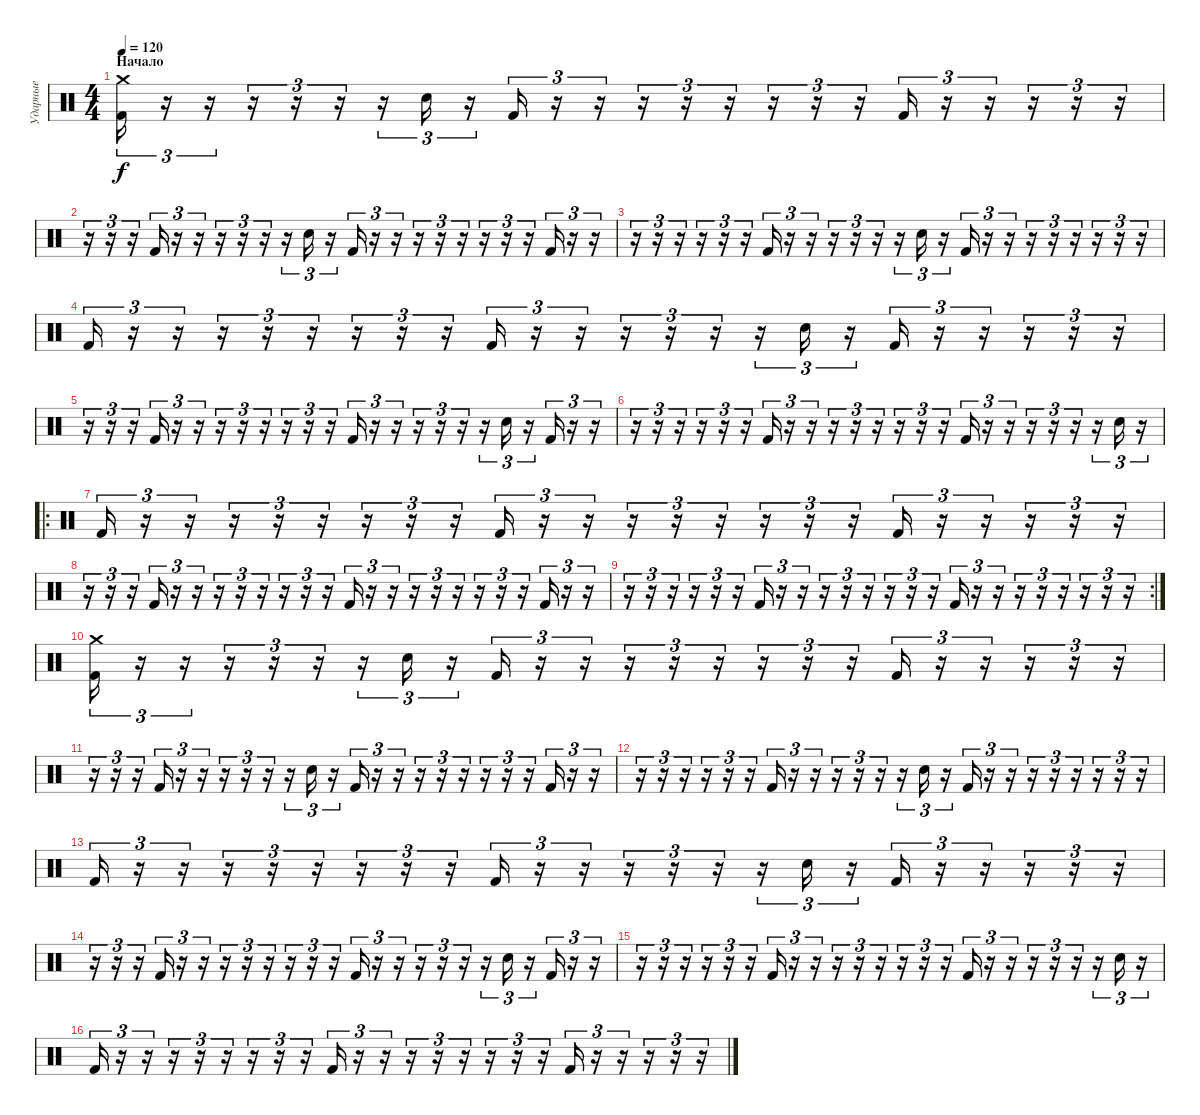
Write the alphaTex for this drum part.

\track ("Ударные" "Ударные") {instrument percussion}
\staff {score}
\articulation defaults
\ts (4 4)
\section ("" "Начало")
\tempo 120
\clef neutral
\ks c
("Crash medium (hit)" "Kick (hit) 2").16{tu (3 2) dy f} r.16{tu (3 2)} r.16{tu (3 2)} r.16{tu (3 2)} r.16{tu (3 2)} r.16{tu (3 2)} r.16{tu (3 2)} "Snare (hit) 2".16{tu (3 2)} r.16{tu (3 2)} "Kick (hit) 2".16{tu (3 2)} r.16{tu (3 2)} r.16{tu (3 2)} r.16{tu (3 2)} r.16{tu (3 2)} r.16{tu (3 2)} r.16{tu (3 2)} r.16{tu (3 2)} r.16{tu (3 2)} "Kick (hit) 2".16{tu (3 2)} r.16{tu (3 2)} r.16{tu (3 2)} r.16{tu (3 2)} r.16{tu (3 2)} r.16{tu (3 2)} |
r.16{tu (3 2)} r.16{tu (3 2)} r.16{tu (3 2)} "Kick (hit) 2".16{tu (3 2)} r.16{tu (3 2)} r.16{tu (3 2)} r.16{tu (3 2)} r.16{tu (3 2)} r.16{tu (3 2)} r.16{tu (3 2)} "Snare (hit) 2".16{tu (3 2)} r.16{tu (3 2)} "Kick (hit) 2".16{tu (3 2)} r.16{tu (3 2)} r.16{tu (3 2)} r.16{tu (3 2)} r.16{tu (3 2)} r.16{tu (3 2)} r.16{tu (3 2)} r.16{tu (3 2)} r.16{tu (3 2)} "Kick (hit) 2".16{tu (3 2)} r.16{tu (3 2)} r.16{tu (3 2)} |
r.16{tu (3 2)} r.16{tu (3 2)} r.16{tu (3 2)} r.16{tu (3 2)} r.16{tu (3 2)} r.16{tu (3 2)} "Kick (hit) 2".16{tu (3 2)} r.16{tu (3 2)} r.16{tu (3 2)} r.16{tu (3 2)} r.16{tu (3 2)} r.16{tu (3 2)} r.16{tu (3 2)} "Snare (hit) 2".16{tu (3 2)} r.16{tu (3 2)} "Kick (hit) 2".16{tu (3 2)} r.16{tu (3 2)} r.16{tu (3 2)} r.16{tu (3 2)} r.16{tu (3 2)} r.16{tu (3 2)} r.16{tu (3 2)} r.16{tu (3 2)} r.16{tu (3 2)} |
"Kick (hit) 2".16{tu (3 2)} r.16{tu (3 2)} r.16{tu (3 2)} r.16{tu (3 2)} r.16{tu (3 2)} r.16{tu (3 2)} r.16{tu (3 2)} r.16{tu (3 2)} r.16{tu (3 2)} "Kick (hit) 2".16{tu (3 2)} r.16{tu (3 2)} r.16{tu (3 2)} r.16{tu (3 2)} r.16{tu (3 2)} r.16{tu (3 2)} r.16{tu (3 2)} "Snare (hit) 2".16{tu (3 2)} r.16{tu (3 2)} "Kick (hit) 2".16{tu (3 2)} r.16{tu (3 2)} r.16{tu (3 2)} r.16{tu (3 2)} r.16{tu (3 2)} r.16{tu (3 2)} |
r.16{tu (3 2)} r.16{tu (3 2)} r.16{tu (3 2)} "Kick (hit) 2".16{tu (3 2)} r.16{tu (3 2)} r.16{tu (3 2)} r.16{tu (3 2)} r.16{tu (3 2)} r.16{tu (3 2)} r.16{tu (3 2)} r.16{tu (3 2)} r.16{tu (3 2)} "Kick (hit) 2".16{tu (3 2)} r.16{tu (3 2)} r.16{tu (3 2)} r.16{tu (3 2)} r.16{tu (3 2)} r.16{tu (3 2)} r.16{tu (3 2)} "Snare (hit) 2".16{tu (3 2)} r.16{tu (3 2)} "Kick (hit) 2".16{tu (3 2)} r.16{tu (3 2)} r.16{tu (3 2)} |
r.16{tu (3 2)} r.16{tu (3 2)} r.16{tu (3 2)} r.16{tu (3 2)} r.16{tu (3 2)} r.16{tu (3 2)} "Kick (hit) 2".16{tu (3 2)} r.16{tu (3 2)} r.16{tu (3 2)} r.16{tu (3 2)} r.16{tu (3 2)} r.16{tu (3 2)} r.16{tu (3 2)} r.16{tu (3 2)} r.16{tu (3 2)} "Kick (hit) 2".16{tu (3 2)} r.16{tu (3 2)} r.16{tu (3 2)} r.16{tu (3 2)} r.16{tu (3 2)} r.16{tu (3 2)} r.16{tu (3 2)} "Snare (hit) 2".16{tu (3 2)} r.16{tu (3 2)} |
\ro "Kick (hit) 2".16{tu (3 2)}
r.16{tu (3 2)} r.16{tu (3 2)} r.16{tu (3 2)} r.16{tu (3 2)} r.16{tu (3 2)} r.16{tu (3 2)} r.16{tu (3 2)} r.16{tu (3 2)} "Kick (hit) 2".16{tu (3 2)} r.16{tu (3 2)} r.16{tu (3 2)} r.16{tu (3 2)} r.16{tu (3 2)} r.16{tu (3 2)} r.16{tu (3 2)} r.16{tu (3 2)} r.16{tu (3 2)} "Kick (hit) 2".16{tu (3 2)} r.16{tu (3 2)} r.16{tu (3 2)} r.16{tu (3 2)} r.16{tu (3 2)} r.16{tu (3 2)} |
r.16{tu (3 2)} r.16{tu (3 2)} r.16{tu (3 2)} "Kick (hit) 2".16{tu (3 2)} r.16{tu (3 2)} r.16{tu (3 2)} r.16{tu (3 2)} r.16{tu (3 2)} r.16{tu (3 2)} r.16{tu (3 2)} r.16{tu (3 2)} r.16{tu (3 2)} "Kick (hit) 2".16{tu (3 2)} r.16{tu (3 2)} r.16{tu (3 2)} r.16{tu (3 2)} r.16{tu (3 2)} r.16{tu (3 2)} r.16{tu (3 2)} r.16{tu (3 2)} r.16{tu (3 2)} "Kick (hit) 2".16{tu (3 2)} r.16{tu (3 2)} r.16{tu (3 2)} |
\rc 2
r.16{tu (3 2)} r.16{tu (3 2)} r.16{tu (3 2)} r.16{tu (3 2)} r.16{tu (3 2)} r.16{tu (3 2)} "Kick (hit) 2".16{tu (3 2)} r.16{tu (3 2)} r.16{tu (3 2)} r.16{tu (3 2)} r.16{tu (3 2)} r.16{tu (3 2)} r.16{tu (3 2)} r.16{tu (3 2)} r.16{tu (3 2)} "Kick (hit) 2".16{tu (3 2)} r.16{tu (3 2)} r.16{tu (3 2)} r.16{tu (3 2)} r.16{tu (3 2)} r.16{tu (3 2)} r.16{tu (3 2)} r.16{tu (3 2)} r.16{tu (3 2)} |
("Crash medium (hit)" "Kick (hit) 2").16{tu (3 2)} r.16{tu (3 2)} r.16{tu (3 2)} r.16{tu (3 2)} r.16{tu (3 2)} r.16{tu (3 2)} r.16{tu (3 2)} "Snare (hit) 2".16{tu (3 2)} r.16{tu (3 2)} "Kick (hit) 2".16{tu (3 2)} r.16{tu (3 2)} r.16{tu (3 2)} r.16{tu (3 2)} r.16{tu (3 2)} r.16{tu (3 2)} r.16{tu (3 2)} r.16{tu (3 2)} r.16{tu (3 2)} "Kick (hit) 2".16{tu (3 2)} r.16{tu (3 2)} r.16{tu (3 2)} r.16{tu (3 2)} r.16{tu (3 2)} r.16{tu (3 2)} |
r.16{tu (3 2)} r.16{tu (3 2)} r.16{tu (3 2)} "Kick (hit) 2".16{tu (3 2)} r.16{tu (3 2)} r.16{tu (3 2)} r.16{tu (3 2)} r.16{tu (3 2)} r.16{tu (3 2)} r.16{tu (3 2)} "Snare (hit) 2".16{tu (3 2)} r.16{tu (3 2)} "Kick (hit) 2".16{tu (3 2)} r.16{tu (3 2)} r.16{tu (3 2)} r.16{tu (3 2)} r.16{tu (3 2)} r.16{tu (3 2)} r.16{tu (3 2)} r.16{tu (3 2)} r.16{tu (3 2)} "Kick (hit) 2".16{tu (3 2)} r.16{tu (3 2)} r.16{tu (3 2)} |
r.16{tu (3 2)} r.16{tu (3 2)} r.16{tu (3 2)} r.16{tu (3 2)} r.16{tu (3 2)} r.16{tu (3 2)} "Kick (hit) 2".16{tu (3 2)} r.16{tu (3 2)} r.16{tu (3 2)} r.16{tu (3 2)} r.16{tu (3 2)} r.16{tu (3 2)} r.16{tu (3 2)} "Snare (hit) 2".16{tu (3 2)} r.16{tu (3 2)} "Kick (hit) 2".16{tu (3 2)} r.16{tu (3 2)} r.16{tu (3 2)} r.16{tu (3 2)} r.16{tu (3 2)} r.16{tu (3 2)} r.16{tu (3 2)} r.16{tu (3 2)} r.16{tu (3 2)} |
"Kick (hit) 2".16{tu (3 2)} r.16{tu (3 2)} r.16{tu (3 2)} r.16{tu (3 2)} r.16{tu (3 2)} r.16{tu (3 2)} r.16{tu (3 2)} r.16{tu (3 2)} r.16{tu (3 2)} "Kick (hit) 2".16{tu (3 2)} r.16{tu (3 2)} r.16{tu (3 2)} r.16{tu (3 2)} r.16{tu (3 2)} r.16{tu (3 2)} r.16{tu (3 2)} "Snare (hit) 2".16{tu (3 2)} r.16{tu (3 2)} "Kick (hit) 2".16{tu (3 2)} r.16{tu (3 2)} r.16{tu (3 2)} r.16{tu (3 2)} r.16{tu (3 2)} r.16{tu (3 2)} |
r.16{tu (3 2)} r.16{tu (3 2)} r.16{tu (3 2)} "Kick (hit) 2".16{tu (3 2)} r.16{tu (3 2)} r.16{tu (3 2)} r.16{tu (3 2)} r.16{tu (3 2)} r.16{tu (3 2)} r.16{tu (3 2)} r.16{tu (3 2)} r.16{tu (3 2)} "Kick (hit) 2".16{tu (3 2)} r.16{tu (3 2)} r.16{tu (3 2)} r.16{tu (3 2)} r.16{tu (3 2)} r.16{tu (3 2)} r.16{tu (3 2)} "Snare (hit) 2".16{tu (3 2)} r.16{tu (3 2)} "Kick (hit) 2".16{tu (3 2)} r.16{tu (3 2)} r.16{tu (3 2)} |
r.16{tu (3 2)} r.16{tu (3 2)} r.16{tu (3 2)} r.16{tu (3 2)} r.16{tu (3 2)} r.16{tu (3 2)} "Kick (hit) 2".16{tu (3 2)} r.16{tu (3 2)} r.16{tu (3 2)} r.16{tu (3 2)} r.16{tu (3 2)} r.16{tu (3 2)} r.16{tu (3 2)} r.16{tu (3 2)} r.16{tu (3 2)} "Kick (hit) 2".16{tu (3 2)} r.16{tu (3 2)} r.16{tu (3 2)} r.16{tu (3 2)} r.16{tu (3 2)} r.16{tu (3 2)} r.16{tu (3 2)} "Snare (hit) 2".16{tu (3 2)} r.16{tu (3 2)} |
"Kick (hit) 2".16{tu (3 2)} r.16{tu (3 2)} r.16{tu (3 2)} r.16{tu (3 2)} r.16{tu (3 2)} r.16{tu (3 2)} r.16{tu (3 2)} r.16{tu (3 2)} r.16{tu (3 2)} "Kick (hit) 2".16{tu (3 2)} r.16{tu (3 2)} r.16{tu (3 2)} r.16{tu (3 2)} r.16{tu (3 2)} r.16{tu (3 2)} r.16{tu (3 2)} r.16{tu (3 2)} r.16{tu (3 2)} "Kick (hit) 2".16{tu (3 2)} r.16{tu (3 2)} r.16{tu (3 2)} r.16{tu (3 2)} r.16{tu (3 2)} r.16{tu (3 2)}
